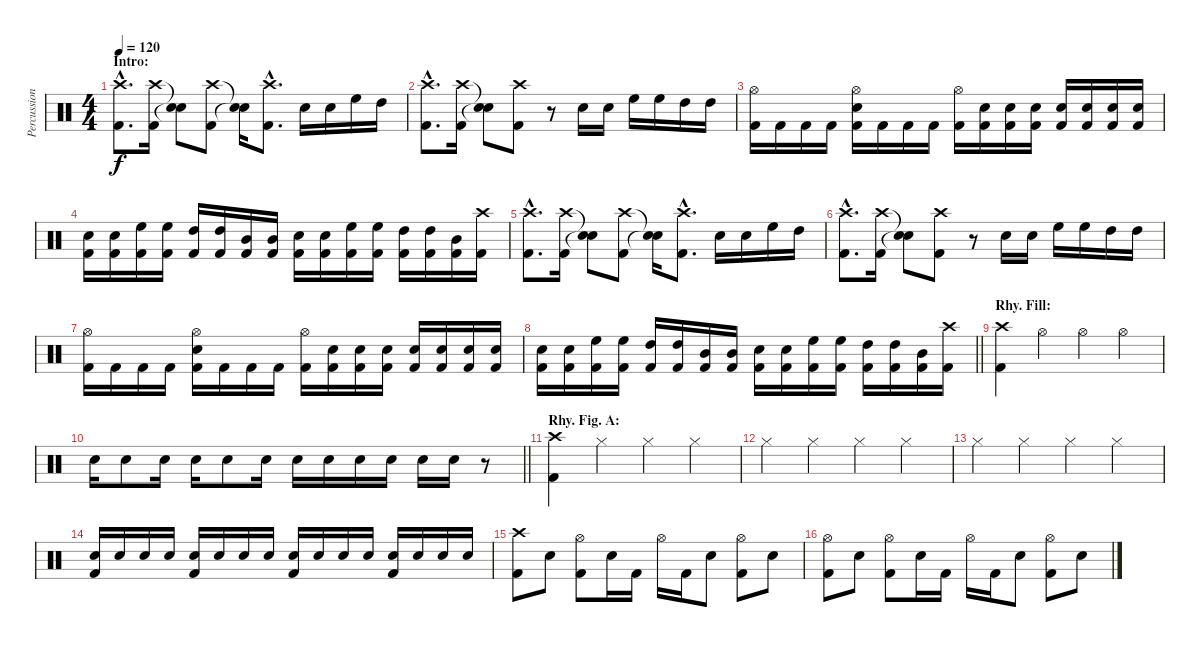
\track ("Percussion" "Percussion") {instrument percussion}
\staff {score}
\articulation defaults
\ts (4 4)
\section ("" "Intro:")
\tempo 120
\clef neutral
\ks c
("Crash high (hit)"{hac} "Kick (hit) 2"{hac}).8{d dy f} ("Crash high (hit)" "Kick (hit) 2").16 ("Snare (hit)"{t} "Snare (hit)"{t}).8 ("Crash high (hit)" "Kick (hit) 2").8 ("Snare (hit)"{t} "Snare (hit)"{t}).16 ("Crash high (hit)"{hac} "Kick (hit) 2"{hac}).8{d} "Electric Snare (hit)".16 "Electric Snare (hit)".16 "High Floor Tom (hit)".16 "High Tom (hit)".16 |
("Crash high (hit)"{hac} "Kick (hit) 2"{hac}).8{d} ("Crash high (hit)" "Kick (hit) 2").16 ("Snare (hit)"{t} "Snare (hit)"{t}).8 ("Crash high (hit)" "Kick (hit) 2").8 r.8 "Electric Snare (hit)".16 "Electric Snare (hit)".16 "High Floor Tom (hit)".16 "High Floor Tom (hit)".16 "High Tom (hit)".16 "High Tom (hit)".16 |
("Hi-Hat (open)" "Kick (hit) 2").16 "Kick (hit) 2".16 "Kick (hit) 2".16 "Kick (hit) 2".16 ("Hi-Hat (open)" "Electric Snare (hit)" "Kick (hit) 2").16 "Kick (hit) 2".16 "Kick (hit) 2".16 "Kick (hit) 2".16 ("Hi-Hat (open)" "Kick (hit) 2").16 ("Electric Snare (hit)" "Kick (hit) 2").16 ("Electric Snare (hit)" "Kick (hit) 2").16 ("Electric Snare (hit)" "Kick (hit) 2").16 ("Electric Snare (hit)" "Kick (hit) 2").16 ("Electric Snare (hit)" "Kick (hit) 2").16 ("Electric Snare (hit)" "Kick (hit) 2").16 ("Electric Snare (hit)" "Kick (hit) 2").16 |
("Electric Snare (hit)" "Kick (hit) 2").16 ("Electric Snare (hit)" "Kick (hit) 2").16 ("High Floor Tom (hit)" "Kick (hit) 2").16 ("High Floor Tom (hit)" "Kick (hit) 2").16 ("High Tom (hit)" "Kick (hit) 2").16 ("High Tom (hit)" "Kick (hit) 2").16 ("Mid Tom (hit)" "Kick (hit) 2").16 ("Mid Tom (hit)" "Kick (hit) 2").16 ("Electric Snare (hit)" "Kick (hit) 2").16 ("Electric Snare (hit)" "Kick (hit) 2").16 ("High Floor Tom (hit)" "Kick (hit) 2").16 ("High Floor Tom (hit)" "Kick (hit) 2").16 ("High Tom (hit)" "Kick (hit) 2").16 ("High Tom (hit)" "Kick (hit) 2").16 ("Mid Tom (hit)" "Kick (hit) 2").16 ("Crash high (hit)" "Kick (hit) 2").16 |
("Crash high (hit)"{hac} "Kick (hit) 2"{hac}).8{d} ("Crash high (hit)" "Kick (hit) 2").16 ("Snare (hit)"{t} "Snare (hit)"{t}).8 ("Crash high (hit)" "Kick (hit) 2").8 ("Snare (hit)"{t} "Snare (hit)"{t}).16 ("Crash high (hit)"{hac} "Kick (hit) 2"{hac}).8{d} "Electric Snare (hit)".16 "Electric Snare (hit)".16 "High Floor Tom (hit)".16 "High Tom (hit)".16 |
("Crash high (hit)"{hac} "Kick (hit) 2"{hac}).8{d} ("Crash high (hit)" "Kick (hit) 2").16 ("Snare (hit)"{t} "Snare (hit)"{t}).8 ("Crash high (hit)" "Kick (hit) 2").8 r.8 "Electric Snare (hit)".16 "Electric Snare (hit)".16 "High Floor Tom (hit)".16 "High Floor Tom (hit)".16 "High Tom (hit)".16 "High Tom (hit)".16 |
("Hi-Hat (open)" "Kick (hit) 2").16 "Kick (hit) 2".16 "Kick (hit) 2".16 "Kick (hit) 2".16 ("Hi-Hat (open)" "Electric Snare (hit)" "Kick (hit) 2").16 "Kick (hit) 2".16 "Kick (hit) 2".16 "Kick (hit) 2".16 ("Hi-Hat (open)" "Kick (hit) 2").16 ("Electric Snare (hit)" "Kick (hit) 2").16 ("Electric Snare (hit)" "Kick (hit) 2").16 ("Electric Snare (hit)" "Kick (hit) 2").16 ("Electric Snare (hit)" "Kick (hit) 2").16 ("Electric Snare (hit)" "Kick (hit) 2").16 ("Electric Snare (hit)" "Kick (hit) 2").16 ("Electric Snare (hit)" "Kick (hit) 2").16 |
\barLineRight lightlight
("Electric Snare (hit)" "Kick (hit) 2").16 ("Electric Snare (hit)" "Kick (hit) 2").16 ("High Floor Tom (hit)" "Kick (hit) 2").16 ("High Floor Tom (hit)" "Kick (hit) 2").16 ("High Tom (hit)" "Kick (hit) 2").16 ("High Tom (hit)" "Kick (hit) 2").16 ("Mid Tom (hit)" "Kick (hit) 2").16 ("Mid Tom (hit)" "Kick (hit) 2").16 ("Electric Snare (hit)" "Kick (hit) 2").16 ("Electric Snare (hit)" "Kick (hit) 2").16 ("High Floor Tom (hit)" "Kick (hit) 2").16 ("High Floor Tom (hit)" "Kick (hit) 2").16 ("High Tom (hit)" "Kick (hit) 2").16 ("High Tom (hit)" "Kick (hit) 2").16 ("Mid Tom (hit)" "Kick (hit) 2").16 ("Crash high (hit)" "Kick (hit) 2").16 |
\section ("" "Rhy. Fill:")
("Crash high (hit)" "Kick (hit) 2").4 "Hi-Hat (open)".4 "Hi-Hat (open)".4 "Hi-Hat (open)".4 |
\barLineRight lightlight "Electric Snare (hit)".16 "Electric Snare (hit)".8 "Electric Snare (hit)".16 "Electric Snare (hit)".16 "Electric Snare (hit)".8 "Electric Snare (hit)".16 "Electric Snare (hit)".16 "Electric Snare (hit)".16 "Electric Snare (hit)".16 "Electric Snare (hit)".16 "Electric Snare (hit)".16 "Electric Snare (hit)".16
r.8 |
\section ("" "Rhy. Fig. A:")
("Crash high (hit)" "Kick (hit) 2").4 "Hi-Hat (closed)".4 "Hi-Hat (closed)".4 "Hi-Hat (closed)".4 |
"Hi-Hat (closed)".4 "Hi-Hat (closed)".4 "Hi-Hat (closed)".4 "Hi-Hat (closed)".4 |
"Hi-Hat (closed)".4 "Hi-Hat (closed)".4 "Hi-Hat (closed)".4 "Hi-Hat (closed)".4 |
("Electric Snare (hit)" "Kick (hit) 2").16 "Electric Snare (hit)".16 "Electric Snare (hit)".16 "Electric Snare (hit)".16 ("Electric Snare (hit)" "Kick (hit) 2").16 "Electric Snare (hit)".16 "Electric Snare (hit)".16 "Electric Snare (hit)".16 ("Electric Snare (hit)" "Kick (hit) 2").16 "Electric Snare (hit)".16 "Electric Snare (hit)".16 "Electric Snare (hit)".16 ("Electric Snare (hit)" "Kick (hit) 2").16 "Electric Snare (hit)".16 "Electric Snare (hit)".16 "Electric Snare (hit)".16 |
("Crash high (hit)" "Kick (hit) 2").8 "Electric Snare (hit)".8 ("Hi-Hat (open)" "Kick (hit) 2").8 "Electric Snare (hit)".16 "Kick (hit) 2".16 "Hi-Hat (open)".16 "Kick (hit) 2".16 "Electric Snare (hit)".8 ("Hi-Hat (open)" "Kick (hit) 2").8 "Electric Snare (hit)".8 |
("Hi-Hat (open)" "Kick (hit) 2").8 "Electric Snare (hit)".8 ("Hi-Hat (open)" "Kick (hit) 2").8 "Electric Snare (hit)".16 "Kick (hit) 2".16 "Hi-Hat (open)".16 "Kick (hit) 2".16 "Electric Snare (hit)".8 ("Hi-Hat (open)" "Kick (hit) 2").8 "Electric Snare (hit)".8
